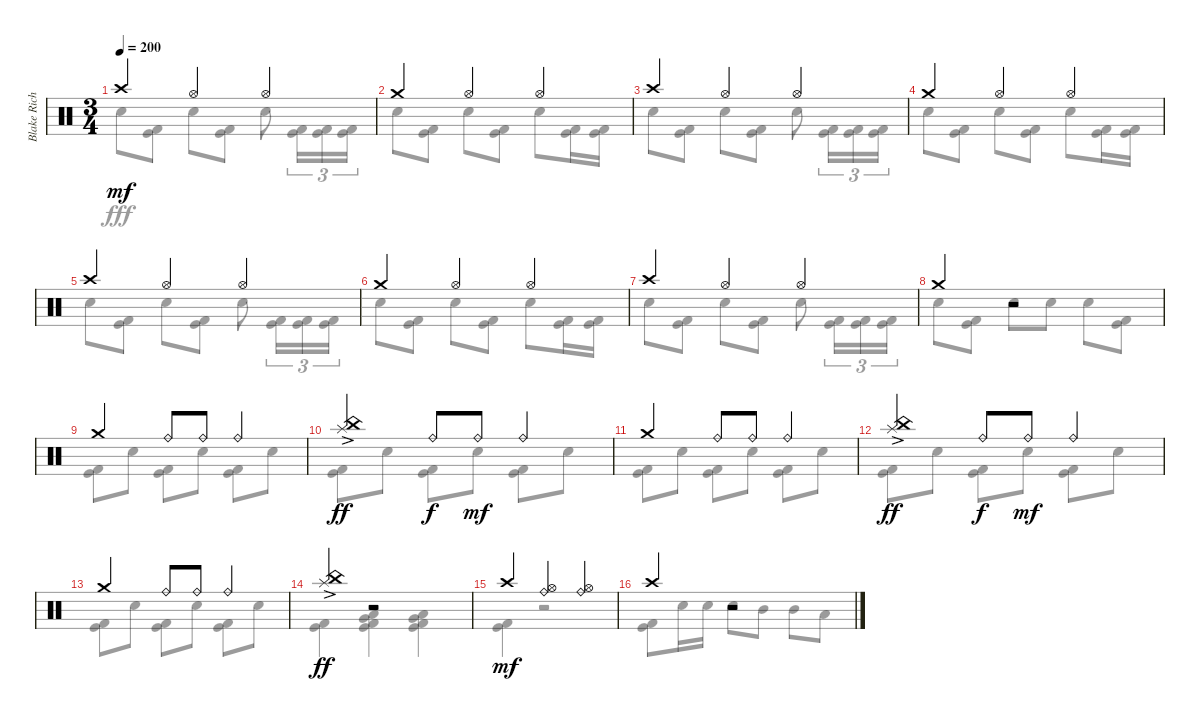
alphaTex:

\track ("Blake Richardson Drums" "Blake Rich") {instrument percussion}
\staff {score}
\articulation defaults
\voice
\ts (3 4)
\tempo 200
\clef neutral
\ks c "Crash high (hit)".4{dy mf} "Hi-Hat (open)".4 "Hi-Hat (open)".4
|
"Crash medium (hit)".4 "Hi-Hat (open)".4 "Hi-Hat (open)".4 |
"Crash high (hit)".4 "Hi-Hat (open)".4 "Hi-Hat (open)".4 |
"Crash medium (hit)".4 "Hi-Hat (open)".4 "Hi-Hat (open)".4 |
"Crash high (hit)".4 "Hi-Hat (open)".4 "Hi-Hat (open)".4 |
"Crash medium (hit)".4 "Hi-Hat (open)".4 "Hi-Hat (open)".4 |
"Crash high (hit)".4 "Hi-Hat (open)".4 "Hi-Hat (open)".4 |
"Crash medium (hit)".4 r.2 |
"Crash medium (hit)".4 "Ride (bell)".8 "Ride (bell)".8 "Ride (bell)".4 |
("China (hit)" "Splash (hit)"{ac}).4{dy ff} "Ride (bell)".8{dy f} "Ride (bell)".8{dy mf} "Ride (bell)".4 |
"Crash medium (hit)".4 "Ride (bell)".8 "Ride (bell)".8 "Ride (bell)".4 |
("China (hit)" "Splash (hit)"{ac}).4{dy ff} "Ride (bell)".8{dy f} "Ride (bell)".8{dy mf} "Ride (bell)".4 |
"Crash medium (hit)".4 "Ride (bell)".8 "Ride (bell)".8 "Ride (bell)".4 |
("China (hit)" "Splash (hit)"{ac}).4{dy ff} r.2 |
"Crash high (hit)".4{dy mf} ("Hi-Hat (open)" "Ride (bell)").4 ("Hi-Hat (open)" "Ride (bell)").4 |
"Crash high (hit)".4 r.2
\voice
\clef neutral
\ottava regular
\simile none
\ks c "Electric Snare (hit)".8{dy fff}
("Kick (hit)" "Kick (hit) 2").8 "Electric Snare (hit)".8 ("Kick (hit)" "Kick (hit) 2").8 "Electric Snare (hit)".8 ("Kick (hit)" "Kick (hit) 2").16{tu (3 2)} ("Kick (hit)" "Kick (hit) 2").16{tu (3 2)} ("Kick (hit)" "Kick (hit) 2").16{tu (3 2)} |
"Electric Snare (hit)".8 ("Kick (hit)" "Kick (hit) 2").8 "Electric Snare (hit)".8 ("Kick (hit)" "Kick (hit) 2").8 "Electric Snare (hit)".8 ("Kick (hit)" "Kick (hit) 2").16 ("Kick (hit)" "Kick (hit) 2").16 |
"Electric Snare (hit)".8 ("Kick (hit)" "Kick (hit) 2").8 "Electric Snare (hit)".8 ("Kick (hit)" "Kick (hit) 2").8 "Electric Snare (hit)".8 ("Kick (hit)" "Kick (hit) 2").16{tu (3 2)} ("Kick (hit)" "Kick (hit) 2").16{tu (3 2)} ("Kick (hit)" "Kick (hit) 2").16{tu (3 2)} |
"Electric Snare (hit)".8 ("Kick (hit)" "Kick (hit) 2").8 "Electric Snare (hit)".8 ("Kick (hit)" "Kick (hit) 2").8 "Electric Snare (hit)".8 ("Kick (hit)" "Kick (hit) 2").16 ("Kick (hit)" "Kick (hit) 2").16 |
"Electric Snare (hit)".8 ("Kick (hit)" "Kick (hit) 2").8 "Electric Snare (hit)".8 ("Kick (hit)" "Kick (hit) 2").8 "Electric Snare (hit)".8 ("Kick (hit)" "Kick (hit) 2").16{tu (3 2)} ("Kick (hit)" "Kick (hit) 2").16{tu (3 2)} ("Kick (hit)" "Kick (hit) 2").16{tu (3 2)} |
"Electric Snare (hit)".8 ("Kick (hit)" "Kick (hit) 2").8 "Electric Snare (hit)".8 ("Kick (hit)" "Kick (hit) 2").8 "Electric Snare (hit)".8 ("Kick (hit)" "Kick (hit) 2").16 ("Kick (hit)" "Kick (hit) 2").16 |
"Electric Snare (hit)".8 ("Kick (hit)" "Kick (hit) 2").8 "Electric Snare (hit)".8 ("Kick (hit)" "Kick (hit) 2").8 "Electric Snare (hit)".8 ("Kick (hit)" "Kick (hit) 2").16{tu (3 2)} ("Kick (hit)" "Kick (hit) 2").16{tu (3 2)} ("Kick (hit)" "Kick (hit) 2").16{tu (3 2)} |
"Electric Snare (hit)".8 ("Kick (hit)" "Kick (hit) 2").8 "Electric Snare (hit)".8 "Electric Snare (hit)".8 "Electric Snare (hit)".8 ("Kick (hit)" "Kick (hit) 2").8 |
("Kick (hit)" "Kick (hit) 2").8 "Electric Snare (hit)".8 ("Kick (hit)" "Kick (hit) 2").8 "Electric Snare (hit)".8 ("Kick (hit)" "Kick (hit) 2").8 "Electric Snare (hit)".8 |
("Kick (hit)" "Kick (hit) 2").8 "Electric Snare (hit)".8 ("Kick (hit)" "Kick (hit) 2").8 "Electric Snare (hit)".8 ("Kick (hit)" "Kick (hit) 2").8 "Electric Snare (hit)".8 |
("Kick (hit)" "Kick (hit) 2").8 "Electric Snare (hit)".8 ("Kick (hit)" "Kick (hit) 2").8 "Electric Snare (hit)".8 ("Kick (hit)" "Kick (hit) 2").8 "Electric Snare (hit)".8 |
("Kick (hit)" "Kick (hit) 2").8 "Electric Snare (hit)".8 ("Kick (hit)" "Kick (hit) 2").8 "Electric Snare (hit)".8 ("Kick (hit)" "Kick (hit) 2").8 "Electric Snare (hit)".8 |
("Kick (hit)" "Kick (hit) 2").8 "Electric Snare (hit)".8 ("Kick (hit)" "Kick (hit) 2").8 "Electric Snare (hit)".8 ("Kick (hit)" "Kick (hit) 2").8 "Electric Snare (hit)".8 |
("Kick (hit)" "Kick (hit) 2").4 ("Kick (hit)" "Low Tom (hit)" "Very Low Tom (hit)" "Kick (hit) 2").4 ("Kick (hit)" "Low Tom (hit)" "Very Low Tom (hit)" "Kick (hit) 2").4 |
("Kick (hit)" "Kick (hit) 2").4 r.2 |
("Kick (hit)" "Kick (hit) 2").8 "Electric Snare (hit)".16 "Electric Snare (hit)".16 "Electric Snare (hit)".8 "Mid Tom (hit)".8 "Mid Tom (hit)".8 "Low Tom (hit)".8
